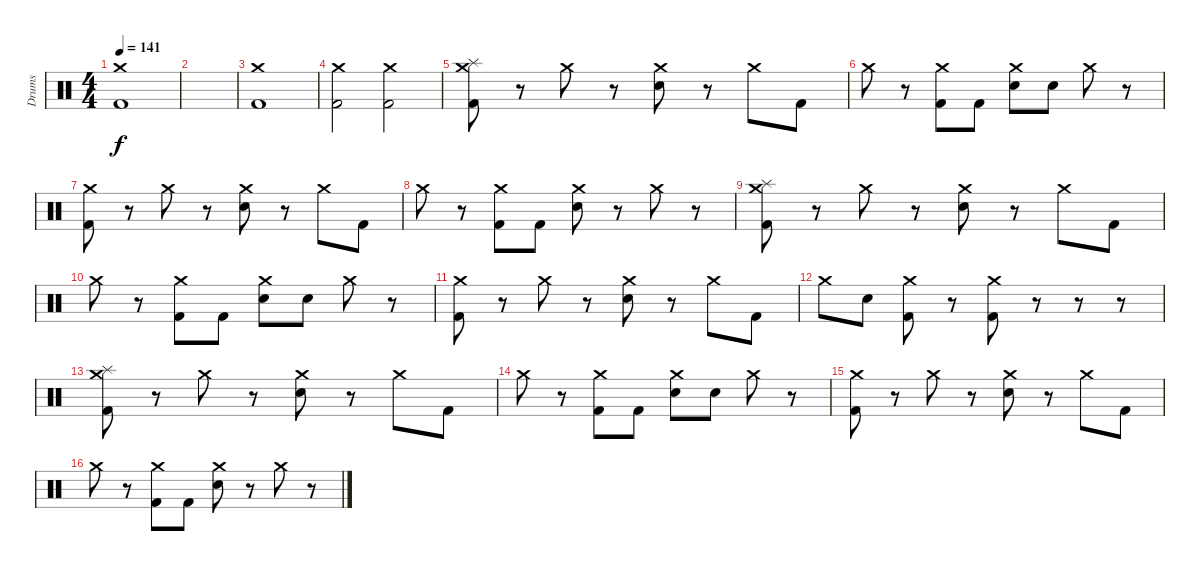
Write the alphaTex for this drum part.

\track ("Drums" "Drums") {instrument percussion}
\staff {score}
\articulation defaults
\ts (4 4)
\tempo 141
\clef neutral
\ks c
("Crash medium (hit)" "Kick (hit) 2").1{dy f} |
|
("Crash medium (hit)" "Kick (hit) 2").1 |
("Crash medium (hit)" "Kick (hit) 2").2 ("Crash medium (hit)" "Kick (hit) 2").2 |
("Crash medium (hit)" "Splash (hit)" "Kick (hit) 2").8 r.8 "Crash medium (hit)".8 r.8 ("Crash medium (hit)" "Electric Snare (hit)").8 r.8 "Crash medium (hit)".8 "Kick (hit) 2".8 |
"Crash medium (hit)".8 r.8 ("Crash medium (hit)" "Kick (hit) 2").8 "Kick (hit) 2".8 ("Crash medium (hit)" "Electric Snare (hit)").8 "Electric Snare (hit)".8 "Crash medium (hit)".8 r.8 |
("Crash medium (hit)" "Kick (hit) 2").8 r.8 "Crash medium (hit)".8 r.8 ("Crash medium (hit)" "Electric Snare (hit)").8 r.8 "Crash medium (hit)".8 "Kick (hit) 2".8 |
"Crash medium (hit)".8 r.8 ("Crash medium (hit)" "Kick (hit) 2").8 "Kick (hit) 2".8 ("Crash medium (hit)" "Electric Snare (hit)").8 r.8 "Crash medium (hit)".8 r.8 |
("Crash medium (hit)" "Splash (hit)" "Kick (hit) 2").8 r.8 "Crash medium (hit)".8 r.8 ("Crash medium (hit)" "Electric Snare (hit)").8 r.8 "Crash medium (hit)".8 "Kick (hit) 2".8 |
"Crash medium (hit)".8 r.8 ("Crash medium (hit)" "Kick (hit) 2").8 "Kick (hit) 2".8 ("Crash medium (hit)" "Electric Snare (hit)").8 "Electric Snare (hit)".8 "Crash medium (hit)".8 r.8 |
("Crash medium (hit)" "Kick (hit) 2").8 r.8 "Crash medium (hit)".8 r.8 ("Crash medium (hit)" "Electric Snare (hit)").8 r.8 "Crash medium (hit)".8 "Kick (hit) 2".8 |
"Crash medium (hit)".8 "Electric Snare (hit)".8 ("Crash medium (hit)" "Kick (hit) 2").8 r.8 ("Crash medium (hit)" "Kick (hit) 2").8 r.8 r.8 r.8 |
("Crash medium (hit)" "Splash (hit)" "Kick (hit) 2").8 r.8 "Crash medium (hit)".8 r.8 ("Crash medium (hit)" "Electric Snare (hit)").8 r.8 "Crash medium (hit)".8 "Kick (hit) 2".8 |
"Crash medium (hit)".8 r.8 ("Crash medium (hit)" "Kick (hit) 2").8 "Kick (hit) 2".8 ("Crash medium (hit)" "Electric Snare (hit)").8 "Electric Snare (hit)".8 "Crash medium (hit)".8 r.8 |
("Crash medium (hit)" "Kick (hit) 2").8 r.8 "Crash medium (hit)".8 r.8 ("Crash medium (hit)" "Electric Snare (hit)").8 r.8 "Crash medium (hit)".8 "Kick (hit) 2".8 |
"Crash medium (hit)".8 r.8 ("Crash medium (hit)" "Kick (hit) 2").8 "Kick (hit) 2".8 ("Crash medium (hit)" "Electric Snare (hit)").8 r.8 "Crash medium (hit)".8 r.8
